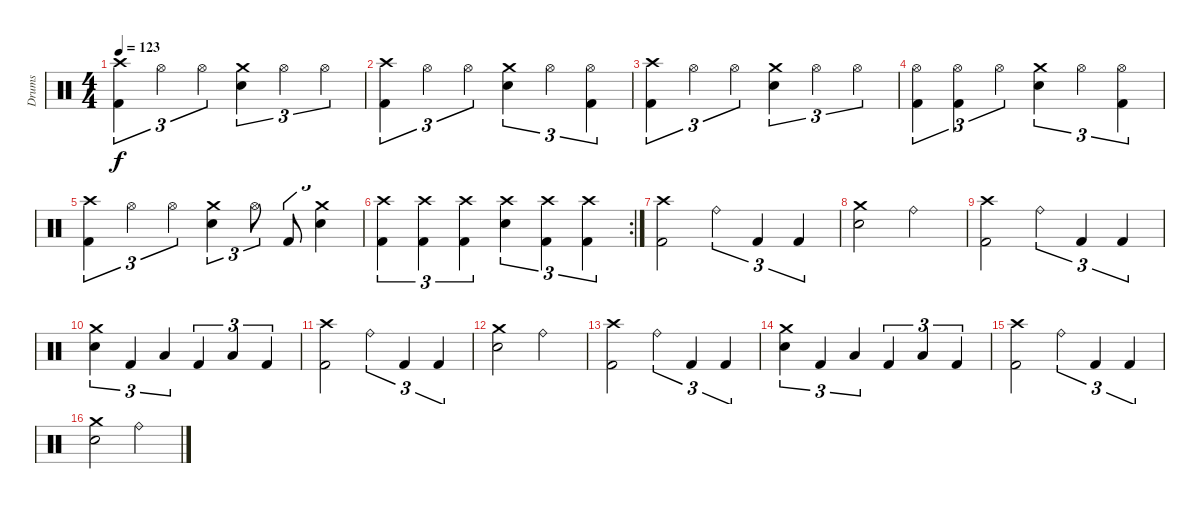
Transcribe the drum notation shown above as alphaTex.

\track ("Drums" "Drums") {instrument percussion}
\staff {score}
\articulation defaults
\ts (4 4)
\tempo 123
\clef neutral
\ks c
("Crash high (hit)" "Kick (hit) 2").4{tu (3 2) dy f} "Hi-Hat (open)".4{tu (3 2)} "Hi-Hat (open)".4{tu (3 2)} ("Crash medium (hit)" "Electric Snare (hit)").4{tu (3 2)} "Hi-Hat (open)".4{tu (3 2)} "Hi-Hat (open)".4{tu (3 2)} |
("Crash high (hit)" "Kick (hit) 2").4{tu (3 2)} "Hi-Hat (open)".4{tu (3 2)} "Hi-Hat (open)".4{tu (3 2)} ("Crash medium (hit)" "Electric Snare (hit)").4{tu (3 2)} "Hi-Hat (open)".4{tu (3 2)} ("Hi-Hat (open)" "Kick (hit) 2").4{tu (3 2)} |
("Crash high (hit)" "Kick (hit) 2").4{tu (3 2)} "Hi-Hat (open)".4{tu (3 2)} "Hi-Hat (open)".4{tu (3 2)} ("Crash medium (hit)" "Electric Snare (hit)").4{tu (3 2)} "Hi-Hat (open)".4{tu (3 2)} "Hi-Hat (open)".4{tu (3 2)} |
("Hi-Hat (open)" "Kick (hit) 2").4{tu (3 2)} ("Hi-Hat (open)" "Kick (hit) 2").4{tu (3 2)} "Hi-Hat (open)".4{tu (3 2)} ("Crash medium (hit)" "Electric Snare (hit)").4{tu (3 2)} "Hi-Hat (open)".4{tu (3 2)} ("Hi-Hat (open)" "Kick (hit) 2").4{tu (3 2)} |
("Crash high (hit)" "Kick (hit) 2").4{tu (3 2)} "Hi-Hat (open)".4{tu (3 2)} "Hi-Hat (open)".4{tu (3 2)} ("Crash medium (hit)" "Electric Snare (hit)").4{tu (3 2)} "Hi-Hat (open)".8{tu (3 2)} "Kick (hit) 2".8{tu (3 2)} ("Crash medium (hit)" "Electric Snare (hit)").4{tu (3 2)} |
\rc 2
("Crash high (hit)" "Kick (hit) 2").4{tu (3 2)} ("Crash high (hit)" "Kick (hit) 2").4{tu (3 2)} ("Crash high (hit)" "Kick (hit) 2").4{tu (3 2)} ("Crash high (hit)" "Electric Snare (hit)").4{tu (3 2)} ("Crash high (hit)" "Kick (hit) 2").4{tu (3 2)} ("Crash high (hit)" "Kick (hit) 2").4{tu (3 2)} |
("Crash high (hit)" "Kick (hit) 2").2 "Ride (bell)".4{tu (3 2)} "Kick (hit) 2".4{tu (3 2)} "Kick (hit) 2".4{tu (3 2)} |
("Crash medium (hit)" "Electric Snare (hit)").2 "Ride (bell)".2 |
("Crash high (hit)" "Kick (hit) 2").2 "Ride (bell)".4{tu (3 2)} "Kick (hit) 2".4{tu (3 2)} "Kick (hit) 2".4{tu (3 2)} |
("Crash medium (hit)" "Electric Snare (hit)").4{tu (3 2)} "Kick (hit) 2".4{tu (3 2)} "Low Tom (hit)".4{tu (3 2)} "Kick (hit) 2".4{tu (3 2)} "Low Tom (hit)".4{tu (3 2)} "Kick (hit) 2".4{tu (3 2)} |
("Crash high (hit)" "Kick (hit) 2").2 "Ride (bell)".4{tu (3 2)} "Kick (hit) 2".4{tu (3 2)} "Kick (hit) 2".4{tu (3 2)} |
("Crash medium (hit)" "Electric Snare (hit)").2 "Ride (bell)".2 |
("Crash high (hit)" "Kick (hit) 2").2 "Ride (bell)".4{tu (3 2)} "Kick (hit) 2".4{tu (3 2)} "Kick (hit) 2".4{tu (3 2)} |
("Crash medium (hit)" "Electric Snare (hit)").4{tu (3 2)} "Kick (hit) 2".4{tu (3 2)} "Low Tom (hit)".4{tu (3 2)} "Kick (hit) 2".4{tu (3 2)} "Low Tom (hit)".4{tu (3 2)} "Kick (hit) 2".4{tu (3 2)} |
("Crash high (hit)" "Kick (hit) 2").2 "Ride (bell)".4{tu (3 2)} "Kick (hit) 2".4{tu (3 2)} "Kick (hit) 2".4{tu (3 2)} |
("Crash medium (hit)" "Electric Snare (hit)").2 "Ride (bell)".2
